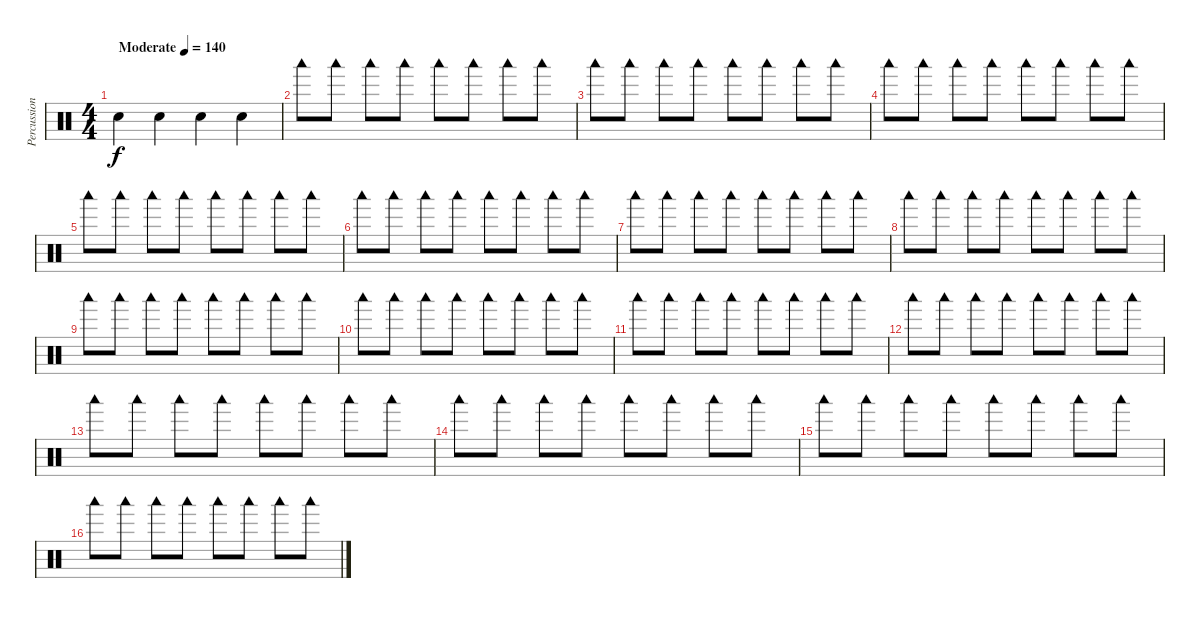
\track ("Percussioni" "Percussion") {mute instrument percussion}
\staff {score}
\articulation defaults
\ts (4 4)
\tempo (140 "Moderate")
\clef neutral
\ks c "Hand Clap (hit)".4{dy f} "Hand Clap (hit)".4 "Hand Clap (hit)".4 "Hand Clap (hit)".4
|
"Woodblock low (hit)".8 "Woodblock low (hit)".8 "Woodblock low (hit)".8 "Woodblock low (hit)".8 "Woodblock low (hit)".8 "Woodblock low (hit)".8 "Woodblock low (hit)".8 "Woodblock low (hit)".8 |
"Woodblock low (hit)".8 "Woodblock low (hit)".8 "Woodblock low (hit)".8 "Woodblock low (hit)".8 "Woodblock low (hit)".8 "Woodblock low (hit)".8 "Woodblock low (hit)".8 "Woodblock low (hit)".8 |
"Woodblock low (hit)".8 "Woodblock low (hit)".8 "Woodblock low (hit)".8 "Woodblock low (hit)".8 "Woodblock low (hit)".8 "Woodblock low (hit)".8 "Woodblock low (hit)".8 "Woodblock low (hit)".8 |
"Woodblock low (hit)".8 "Woodblock low (hit)".8 "Woodblock low (hit)".8 "Woodblock low (hit)".8 "Woodblock low (hit)".8 "Woodblock low (hit)".8 "Woodblock low (hit)".8 "Woodblock low (hit)".8 |
"Woodblock low (hit)".8 "Woodblock low (hit)".8 "Woodblock low (hit)".8 "Woodblock low (hit)".8 "Woodblock low (hit)".8 "Woodblock low (hit)".8 "Woodblock low (hit)".8 "Woodblock low (hit)".8 |
"Woodblock low (hit)".8 "Woodblock low (hit)".8 "Woodblock low (hit)".8 "Woodblock low (hit)".8 "Woodblock low (hit)".8 "Woodblock low (hit)".8 "Woodblock low (hit)".8 "Woodblock low (hit)".8 |
"Woodblock low (hit)".8 "Woodblock low (hit)".8 "Woodblock low (hit)".8 "Woodblock low (hit)".8 "Woodblock low (hit)".8 "Woodblock low (hit)".8 "Woodblock low (hit)".8 "Woodblock low (hit)".8 |
"Woodblock low (hit)".8 "Woodblock low (hit)".8 "Woodblock low (hit)".8 "Woodblock low (hit)".8 "Woodblock low (hit)".8 "Woodblock low (hit)".8 "Woodblock low (hit)".8 "Woodblock low (hit)".8 |
"Woodblock low (hit)".8 "Woodblock low (hit)".8 "Woodblock low (hit)".8 "Woodblock low (hit)".8 "Woodblock low (hit)".8 "Woodblock low (hit)".8 "Woodblock low (hit)".8 "Woodblock low (hit)".8 |
"Woodblock low (hit)".8 "Woodblock low (hit)".8 "Woodblock low (hit)".8 "Woodblock low (hit)".8 "Woodblock low (hit)".8 "Woodblock low (hit)".8 "Woodblock low (hit)".8 "Woodblock low (hit)".8 |
"Woodblock low (hit)".8 "Woodblock low (hit)".8 "Woodblock low (hit)".8 "Woodblock low (hit)".8 "Woodblock low (hit)".8 "Woodblock low (hit)".8 "Woodblock low (hit)".8 "Woodblock low (hit)".8 |
"Woodblock low (hit)".8 "Woodblock low (hit)".8 "Woodblock low (hit)".8 "Woodblock low (hit)".8 "Woodblock low (hit)".8 "Woodblock low (hit)".8 "Woodblock low (hit)".8 "Woodblock low (hit)".8 |
"Woodblock low (hit)".8 "Woodblock low (hit)".8 "Woodblock low (hit)".8 "Woodblock low (hit)".8 "Woodblock low (hit)".8 "Woodblock low (hit)".8 "Woodblock low (hit)".8 "Woodblock low (hit)".8 |
"Woodblock low (hit)".8 "Woodblock low (hit)".8 "Woodblock low (hit)".8 "Woodblock low (hit)".8 "Woodblock low (hit)".8 "Woodblock low (hit)".8 "Woodblock low (hit)".8 "Woodblock low (hit)".8 |
"Woodblock low (hit)".8 "Woodblock low (hit)".8 "Woodblock low (hit)".8 "Woodblock low (hit)".8 "Woodblock low (hit)".8 "Woodblock low (hit)".8 "Woodblock low (hit)".8 "Woodblock low (hit)".8
